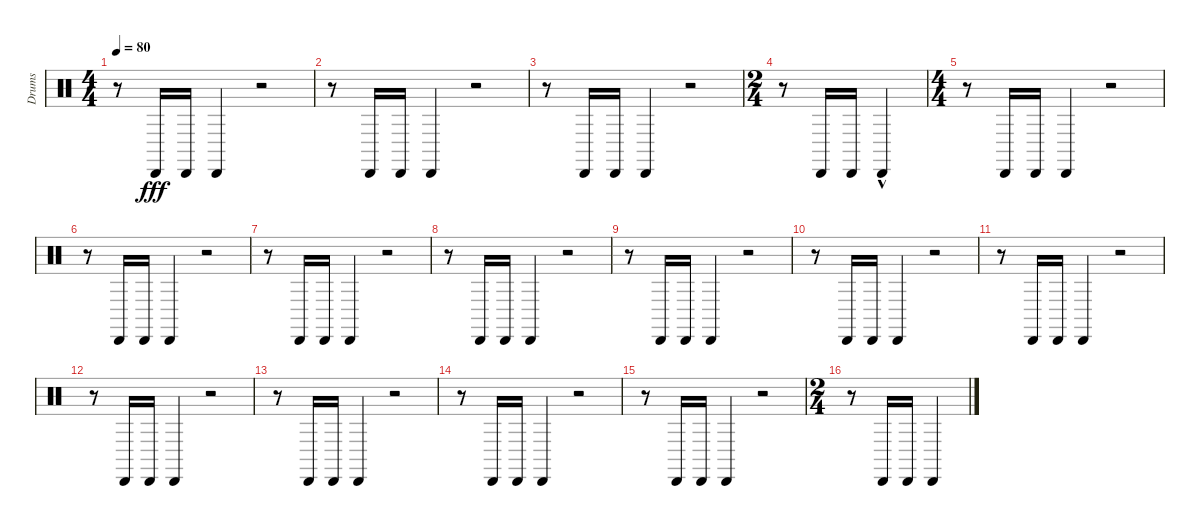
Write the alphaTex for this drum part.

\track ("Drums" "Drums") {instrument percussion}
\staff {score}
\articulation defaults
\ts (4 4)
\tempo 80
\clef neutral
\ks c
r.8{dy fff} "Cabasa (hit)".16 "Cabasa (hit)".16 "Cabasa (hit)".4 r.2 |
r.8 "Cabasa (hit)".16 "Cabasa (hit)".16 "Cabasa (hit)".4 r.2 |
r.8 "Cabasa (hit)".16 "Cabasa (hit)".16 "Cabasa (hit)".4 r.2 |
\ts (2 4)
r.8 "Cabasa (hit)".16 "Cabasa (hit)".16 "Cabasa (hit)"{hac}.4 |
\ts (4 4)
r.8 "Cabasa (hit)".16 "Cabasa (hit)".16 "Cabasa (hit)".4 r.2 |
r.8 "Cabasa (hit)".16 "Cabasa (hit)".16 "Cabasa (hit)".4 r.2 |
r.8 "Cabasa (hit)".16 "Cabasa (hit)".16 "Cabasa (hit)".4 r.2 |
r.8 "Cabasa (hit)".16 "Cabasa (hit)".16 "Cabasa (hit)".4 r.2 |
r.8 "Cabasa (hit)".16 "Cabasa (hit)".16 "Cabasa (hit)".4 r.2 |
r.8 "Cabasa (hit)".16 "Cabasa (hit)".16 "Cabasa (hit)".4 r.2 |
r.8 "Cabasa (hit)".16 "Cabasa (hit)".16 "Cabasa (hit)".4 r.2 |
r.8 "Cabasa (hit)".16 "Cabasa (hit)".16 "Cabasa (hit)".4 r.2 |
r.8 "Cabasa (hit)".16 "Cabasa (hit)".16 "Cabasa (hit)".4 r.2 |
r.8 "Cabasa (hit)".16 "Cabasa (hit)".16 "Cabasa (hit)".4 r.2 |
r.8 "Cabasa (hit)".16 "Cabasa (hit)".16 "Cabasa (hit)".4 r.2 |
\ts (2 4)
r.8 "Cabasa (hit)".16 "Cabasa (hit)".16 "Cabasa (hit)".4
